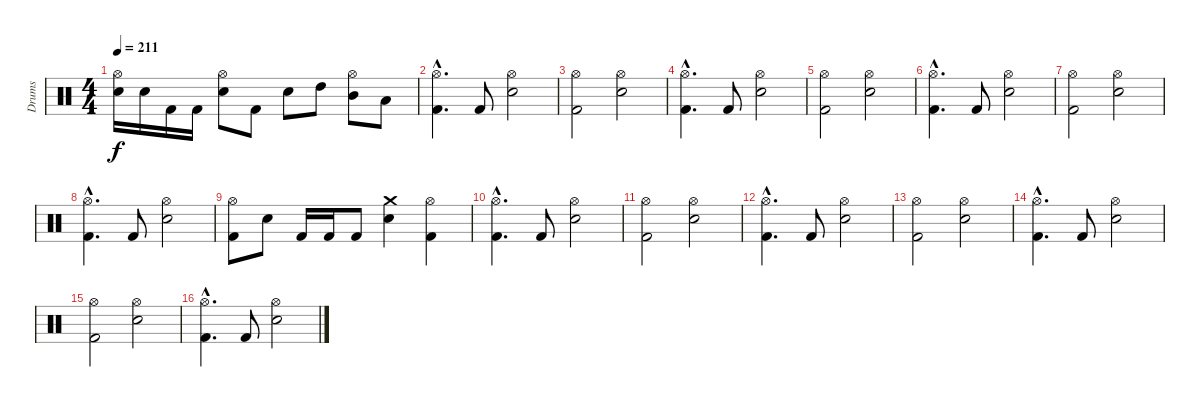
\track ("Drums" "Drums") {instrument percussion}
\staff {score}
\articulation defaults
\ts (4 4)
\tempo 211
\clef neutral
\ks c
("Snare (hit) 2" "Hi-Hat (open)").16{dy f} "Snare (hit) 2".16 "Kick (hit) 2".16 "Kick (hit) 2".16 ("Snare (hit) 2" "Hi-Hat (open)").8 "Kick (hit) 2".8 "Snare (hit) 2".8 "High Tom (hit)".8 ("Mid Tom (hit)" "Hi-Hat (open)").8 "Low Tom (hit)".8 |
("Hi-Hat (open)"{hac} "Kick (hit) 2"{hac}).4{d} "Kick (hit) 2".8 ("Hi-Hat (open)" "Snare (hit) 2").2 |
("Hi-Hat (open)" "Kick (hit) 2").2 ("Hi-Hat (open)" "Snare (hit) 2").2 |
("Hi-Hat (open)"{hac} "Kick (hit) 2"{hac}).4{d} "Kick (hit) 2".8 ("Hi-Hat (open)" "Snare (hit) 2").2 |
("Hi-Hat (open)" "Kick (hit) 2").2 ("Hi-Hat (open)" "Snare (hit) 2").2 |
("Hi-Hat (open)"{hac} "Kick (hit) 2"{hac}).4{d} "Kick (hit) 2".8 ("Hi-Hat (open)" "Snare (hit) 2").2 |
("Hi-Hat (open)" "Kick (hit) 2").2 ("Hi-Hat (open)" "Snare (hit) 2").2 |
("Hi-Hat (open)"{hac} "Kick (hit) 2"{hac}).4{d} "Kick (hit) 2".8 ("Hi-Hat (open)" "Snare (hit) 2").2 |
("Hi-Hat (open)" "Kick (hit) 2").8 "Snare (hit) 2".8 "Kick (hit) 2".16 "Kick (hit) 2".16 "Kick (hit) 2".8 ("Crash medium (hit)" "Snare (hit) 2").4 ("Hi-Hat (open)" "Kick (hit) 2").4 |
("Hi-Hat (open)"{hac} "Kick (hit) 2"{hac}).4{d} "Kick (hit) 2".8 ("Hi-Hat (open)" "Snare (hit) 2").2 |
("Hi-Hat (open)" "Kick (hit) 2").2 ("Hi-Hat (open)" "Snare (hit) 2").2 |
("Hi-Hat (open)"{hac} "Kick (hit) 2"{hac}).4{d} "Kick (hit) 2".8 ("Hi-Hat (open)" "Snare (hit) 2").2 |
("Hi-Hat (open)" "Kick (hit) 2").2 ("Hi-Hat (open)" "Snare (hit) 2").2 |
("Hi-Hat (open)"{hac} "Kick (hit) 2"{hac}).4{d} "Kick (hit) 2".8 ("Hi-Hat (open)" "Snare (hit) 2").2 |
("Hi-Hat (open)" "Kick (hit) 2").2 ("Hi-Hat (open)" "Snare (hit) 2").2 |
("Hi-Hat (open)"{hac} "Kick (hit) 2"{hac}).4{d} "Kick (hit) 2".8 ("Hi-Hat (open)" "Snare (hit) 2").2
